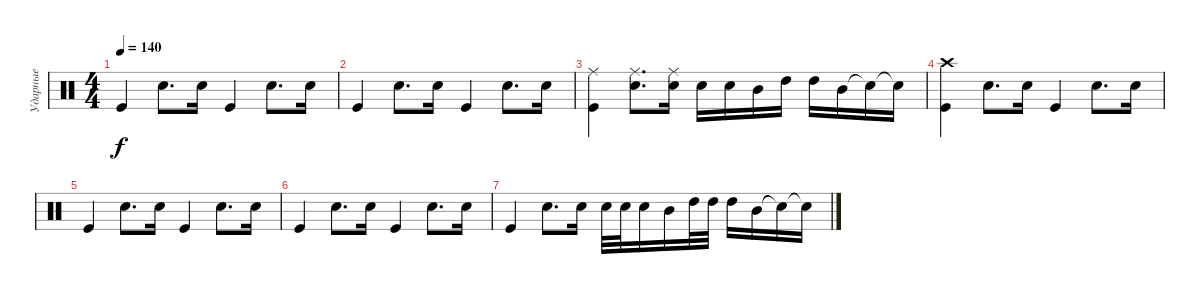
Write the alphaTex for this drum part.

\track ("Ударные" "Ударные") {instrument percussion}
\staff {score}
\articulation defaults
\ts (4 4)
\tempo 140
\clef neutral
\ks c "Kick (hit)".4{dy f} "Snare (hit) 2".8{d} "Snare (hit) 2".16 "Kick (hit)".4 "Snare (hit) 2".8{d} "Snare (hit) 2".16
|
"Kick (hit)".4 "Snare (hit) 2".8{d} "Snare (hit) 2".16 "Kick (hit)".4 "Snare (hit) 2".8{d} "Snare (hit) 2".16 |
("Kick (hit)" "Ride (middle)").4 ("Snare (hit) 2" "Ride (middle)").8{d} ("Snare (hit) 2" "Ride (middle)").16 "Snare (hit) 2".16 "Snare (hit) 2".16 "Mid Tom (hit)".16 "High Tom (hit)".16 "High Tom (hit)".16 "Mid Tom (hit)".16 "Snare (hit)"{t}.16 "Snare (hit)"{t}.16 |
("Kick (hit)" "Crash high (hit)").4 "Snare (hit) 2".8{d} "Snare (hit) 2".16 "Kick (hit)".4 "Snare (hit) 2".8{d} "Snare (hit) 2".16 |
"Kick (hit)".4 "Snare (hit) 2".8{d} "Snare (hit) 2".16 "Kick (hit)".4 "Snare (hit) 2".8{d} "Snare (hit) 2".16 |
"Kick (hit)".4 "Snare (hit) 2".8{d} "Snare (hit) 2".16 "Kick (hit)".4 "Snare (hit) 2".8{d} "Snare (hit) 2".16 |
"Kick (hit)".4 "Snare (hit) 2".8{d} "Snare (hit) 2".16 "Snare (hit) 2".32 "Snare (hit) 2".32 "Snare (hit) 2".16 "Mid Tom (hit)".16 "High Tom (hit)".32 "High Tom (hit)".32 "High Tom (hit)".16 "Mid Tom (hit)".16 "Snare (hit)"{t}.16 "Snare (hit)"{t}.16
